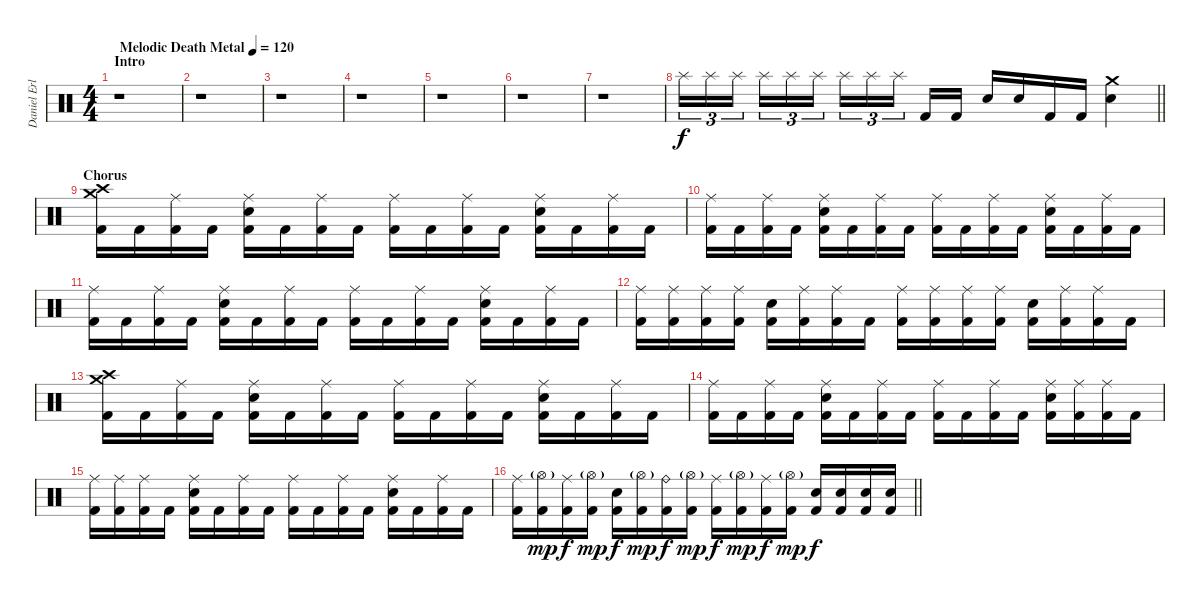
\track ("Daniel Erlandson (Drums)" "Daniel Erl") {instrument percussion}
\staff {score}
\articulation defaults
\ts (4 4)
\section ("" "Intro")
\tempo (120 "Melodic Death Metal")
\clef neutral
\ks c
r.1{dy f} |
r.1 |
r.1 |
r.1 |
r.1 |
r.1 |
r.1{volume 0} |
\barLineRight lightlight "Splash (hit)".16{tu (3 2) volume 16 balance 8} "Splash (hit)".16{tu (3 2)} "Splash (hit)".16{tu (3 2) beam splitsecondary} "Splash (hit)".16{tu (3 2)} "Splash (hit)".16{tu (3 2)} "Splash (hit)".16{tu (3 2)} "Splash (hit)".16{tu (3 2)} "Splash (hit)".16{tu (3 2)} "Splash (hit)".16{tu (3 2) beam splitsecondary} "Kick (hit) 2".16 "Kick (hit) 2".16 "Electric Snare (hit)".16 "Electric Snare (hit)".16 "Kick (hit) 2".16 "Kick (hit) 2".16
("Crash medium (hit)" "Electric Snare (hit)").4 |
\section ("" "Chorus")
("Crash medium (hit)" "Crash high (hit)" "Kick (hit) 2").16{volume 16 balance 8} "Kick (hit) 2".16 ("Ride (middle)" "Kick (hit) 2").16 "Kick (hit) 2".16 ("Ride (middle)" "Electric Snare (hit)" "Kick (hit) 2").16 "Kick (hit) 2".16 ("Ride (middle)" "Kick (hit) 2").16 "Kick (hit) 2".16 ("Ride (middle)" "Kick (hit) 2").16 "Kick (hit) 2".16 ("Ride (middle)" "Kick (hit) 2").16 "Kick (hit) 2".16 ("Ride (middle)" "Electric Snare (hit)" "Kick (hit) 2").16 "Kick (hit) 2".16 ("Ride (middle)" "Kick (hit) 2").16 "Kick (hit) 2".16 |
("Ride (middle)" "Kick (hit) 2").16 "Kick (hit) 2".16 ("Ride (middle)" "Kick (hit) 2").16 "Kick (hit) 2".16 ("Ride (middle)" "Electric Snare (hit)" "Kick (hit) 2").16 "Kick (hit) 2".16 ("Ride (middle)" "Kick (hit) 2").16 "Kick (hit) 2".16 ("Ride (middle)" "Kick (hit) 2").16 "Kick (hit) 2".16 ("Ride (middle)" "Kick (hit) 2").16 "Kick (hit) 2".16 ("Ride (middle)" "Electric Snare (hit)" "Kick (hit) 2").16 "Kick (hit) 2".16 ("Ride (middle)" "Kick (hit) 2").16 "Kick (hit) 2".16 |
("Ride (middle)" "Kick (hit) 2").16 "Kick (hit) 2".16 ("Ride (middle)" "Kick (hit) 2").16 "Kick (hit) 2".16 ("Ride (middle)" "Electric Snare (hit)" "Kick (hit) 2").16 "Kick (hit) 2".16 ("Ride (middle)" "Kick (hit) 2").16 "Kick (hit) 2".16 ("Ride (middle)" "Kick (hit) 2").16 "Kick (hit) 2".16 ("Ride (middle)" "Kick (hit) 2").16 "Kick (hit) 2".16 ("Ride (middle)" "Electric Snare (hit)" "Kick (hit) 2").16 "Kick (hit) 2".16 ("Ride (middle)" "Kick (hit) 2").16 "Kick (hit) 2".16 |
("Ride (middle)" "Kick (hit) 2").16 ("Ride (middle)" "Kick (hit) 2").16 ("Ride (middle)" "Kick (hit) 2").16 ("Ride (middle)" "Kick (hit) 2").16 ("Electric Snare (hit)" "Kick (hit) 2").16 ("Ride (middle)" "Kick (hit) 2").16 ("Ride (middle)" "Kick (hit) 2").16 "Kick (hit) 2".16 ("Ride (middle)" "Kick (hit) 2").16 ("Ride (middle)" "Kick (hit) 2").16 ("Ride (middle)" "Kick (hit) 2").16 ("Ride (middle)" "Kick (hit) 2").16 ("Electric Snare (hit)" "Kick (hit) 2").16 ("Ride (middle)" "Kick (hit) 2").16 ("Ride (middle)" "Kick (hit) 2").16 "Kick (hit) 2".16 |
("Crash medium (hit)" "Crash high (hit)" "Kick (hit) 2").16 "Kick (hit) 2".16 ("Ride (middle)" "Kick (hit) 2").16 "Kick (hit) 2".16 ("Ride (middle)" "Electric Snare (hit)" "Kick (hit) 2").16 "Kick (hit) 2".16 ("Ride (middle)" "Kick (hit) 2").16 "Kick (hit) 2".16 ("Ride (middle)" "Kick (hit) 2").16 "Kick (hit) 2".16 ("Ride (middle)" "Kick (hit) 2").16 "Kick (hit) 2".16 ("Ride (middle)" "Electric Snare (hit)" "Kick (hit) 2").16 "Kick (hit) 2".16 ("Ride (middle)" "Kick (hit) 2").16 "Kick (hit) 2".16 |
("Ride (middle)" "Kick (hit) 2").16 "Kick (hit) 2".16 ("Ride (middle)" "Kick (hit) 2").16 "Kick (hit) 2".16 ("Ride (middle)" "Electric Snare (hit)" "Kick (hit) 2").16 "Kick (hit) 2".16 ("Ride (middle)" "Kick (hit) 2").16 "Kick (hit) 2".16 ("Ride (middle)" "Kick (hit) 2").16 "Kick (hit) 2".16 ("Ride (middle)" "Kick (hit) 2").16 "Kick (hit) 2".16 ("Ride (middle)" "Electric Snare (hit)" "Kick (hit) 2").16 ("Ride (middle)" "Kick (hit) 2").16 ("Ride (middle)" "Kick (hit) 2").16 "Kick (hit) 2".16 |
("Ride (middle)" "Kick (hit) 2").16 ("Ride (middle)" "Kick (hit) 2").16 ("Ride (middle)" "Kick (hit) 2").16 "Kick (hit) 2".16 ("Ride (middle)" "Electric Snare (hit)" "Kick (hit) 2").16 "Kick (hit) 2".16 ("Ride (middle)" "Kick (hit) 2").16 "Kick (hit) 2".16 ("Ride (middle)" "Kick (hit) 2").16 "Kick (hit) 2".16 ("Ride (middle)" "Kick (hit) 2").16 "Kick (hit) 2".16 ("Ride (middle)" "Electric Snare (hit)" "Kick (hit) 2").16 "Kick (hit) 2".16 ("Ride (middle)" "Kick (hit) 2").16 "Kick (hit) 2".16 |
\barLineRight lightlight
("Ride (middle)" "Kick (hit) 2").16 ("Hi-Hat (open)"{g} "Kick (hit) 2").16{dy mp} ("Ride (middle)" "Kick (hit) 2").16{dy f} ("Hi-Hat (open)"{g} "Kick (hit) 2").16{dy mp} ("Electric Snare (hit)" "Kick (hit) 2").16{dy f} ("Hi-Hat (open)"{g} "Kick (hit) 2").16{dy mp} ("Ride (bell)" "Kick (hit) 2").16{dy f} ("Hi-Hat (open)"{g} "Kick (hit) 2").16{dy mp} ("Ride (middle)" "Kick (hit) 2").16{dy f} ("Hi-Hat (open)"{g} "Kick (hit) 2").16{dy mp} ("Ride (middle)" "Kick (hit) 2").16{dy f} ("Hi-Hat (open)"{g} "Kick (hit) 2").16{dy mp} ("Electric Snare (hit)" "Kick (hit) 2").16{dy f} ("Electric Snare (hit)" "Kick (hit) 2").16 ("Electric Snare (hit)" "Kick (hit) 2").16 ("Electric Snare (hit)" "Kick (hit) 2").16
